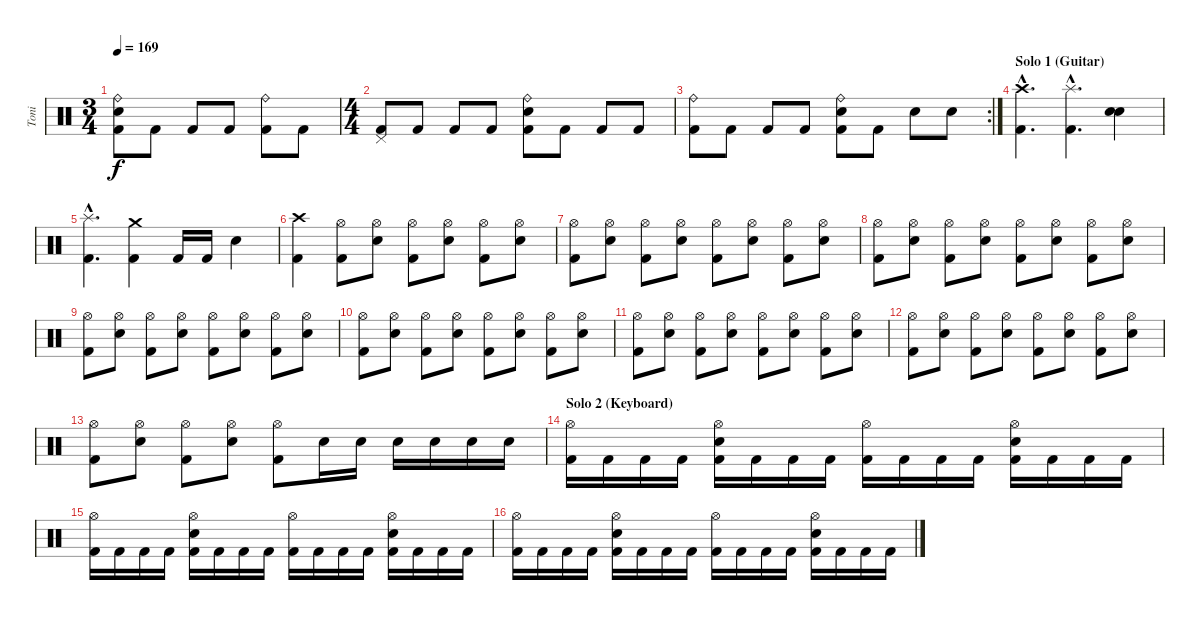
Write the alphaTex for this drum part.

\track ("Toni" "Toni") {instrument percussion}
\staff {score}
\articulation defaults
\ts (3 4)
\tempo 169
\clef neutral
\ks c
("Ride (bell)" "Electric Snare (hit)" "Kick (hit) 2").8{dy f} "Kick (hit) 2".8 "Kick (hit) 2".8 "Kick (hit) 2".8 ("Ride (bell)" "Kick (hit) 2").8 "Kick (hit) 2".8 |
\ts (4 4)
("Pedal Hi-Hat (hit)" "Kick (hit) 2").8 "Kick (hit) 2".8 "Kick (hit) 2".8 "Kick (hit) 2".8 ("Ride (bell)" "Electric Snare (hit)" "Kick (hit) 2").8 "Kick (hit) 2".8 "Kick (hit) 2".8 "Kick (hit) 2".8 |
\rc 2
("Ride (bell)" "Kick (hit) 2").8 "Kick (hit) 2".8 "Kick (hit) 2".8 "Kick (hit) 2".8 ("Ride (bell)" "Electric Snare (hit)" "Kick (hit) 2").8 "Kick (hit) 2".8 "Electric Snare (hit)".8 "Electric Snare (hit)".8 |
\section ("" "Solo 1 (Guitar)")
("Crash high (hit)"{hac} "Kick (hit) 2"{hac}).4{d} ("Splash (hit)"{hac} "Kick (hit) 2"{hac}).4{d} ("Electric Snare (hit)" "Electric Snare (hit)").4{bd 60} |
("Splash (hit)"{hac} "Kick (hit) 2"{hac}).4{d} ("Crash medium (hit)" "Kick (hit) 2").4 "Kick (hit) 2".16 "Kick (hit) 2".16 "Electric Snare (hit)".4 |
("Crash high (hit)" "Kick (hit) 2").4 ("Hi-Hat (open)" "Kick (hit) 2").8 ("Hi-Hat (open)" "Electric Snare (hit)").8 ("Hi-Hat (open)" "Kick (hit) 2").8 ("Hi-Hat (open)" "Electric Snare (hit)").8 ("Hi-Hat (open)" "Kick (hit) 2").8 ("Hi-Hat (open)" "Electric Snare (hit)").8 |
("Hi-Hat (open)" "Kick (hit) 2").8 ("Hi-Hat (open)" "Electric Snare (hit)").8 ("Hi-Hat (open)" "Kick (hit) 2").8 ("Hi-Hat (open)" "Electric Snare (hit)").8 ("Hi-Hat (open)" "Kick (hit) 2").8 ("Hi-Hat (open)" "Electric Snare (hit)").8 ("Hi-Hat (open)" "Kick (hit) 2").8 ("Hi-Hat (open)" "Electric Snare (hit)").8 |
("Hi-Hat (open)" "Kick (hit) 2").8 ("Hi-Hat (open)" "Electric Snare (hit)").8 ("Hi-Hat (open)" "Kick (hit) 2").8 ("Hi-Hat (open)" "Electric Snare (hit)").8 ("Hi-Hat (open)" "Kick (hit) 2").8 ("Hi-Hat (open)" "Electric Snare (hit)").8 ("Hi-Hat (open)" "Kick (hit) 2").8 ("Hi-Hat (open)" "Electric Snare (hit)").8 |
("Hi-Hat (open)" "Kick (hit) 2").8 ("Hi-Hat (open)" "Electric Snare (hit)").8 ("Hi-Hat (open)" "Kick (hit) 2").8 ("Hi-Hat (open)" "Electric Snare (hit)").8 ("Hi-Hat (open)" "Kick (hit) 2").8 ("Hi-Hat (open)" "Electric Snare (hit)").8 ("Hi-Hat (open)" "Kick (hit) 2").8 ("Hi-Hat (open)" "Electric Snare (hit)").8 |
("Hi-Hat (open)" "Kick (hit) 2").8 ("Hi-Hat (open)" "Electric Snare (hit)").8 ("Hi-Hat (open)" "Kick (hit) 2").8 ("Hi-Hat (open)" "Electric Snare (hit)").8 ("Hi-Hat (open)" "Kick (hit) 2").8 ("Hi-Hat (open)" "Electric Snare (hit)").8 ("Hi-Hat (open)" "Kick (hit) 2").8 ("Hi-Hat (open)" "Electric Snare (hit)").8 |
("Hi-Hat (open)" "Kick (hit) 2").8 ("Hi-Hat (open)" "Electric Snare (hit)").8 ("Hi-Hat (open)" "Kick (hit) 2").8 ("Hi-Hat (open)" "Electric Snare (hit)").8 ("Hi-Hat (open)" "Kick (hit) 2").8 ("Hi-Hat (open)" "Electric Snare (hit)").8 ("Hi-Hat (open)" "Kick (hit) 2").8 ("Hi-Hat (open)" "Electric Snare (hit)").8 |
("Hi-Hat (open)" "Kick (hit) 2").8 ("Hi-Hat (open)" "Electric Snare (hit)").8 ("Hi-Hat (open)" "Kick (hit) 2").8 ("Hi-Hat (open)" "Electric Snare (hit)").8 ("Hi-Hat (open)" "Kick (hit) 2").8 ("Hi-Hat (open)" "Electric Snare (hit)").8 ("Hi-Hat (open)" "Kick (hit) 2").8 ("Hi-Hat (open)" "Electric Snare (hit)").8 |
("Hi-Hat (open)" "Kick (hit) 2").8 ("Hi-Hat (open)" "Electric Snare (hit)").8 ("Hi-Hat (open)" "Kick (hit) 2").8 ("Hi-Hat (open)" "Electric Snare (hit)").8 ("Hi-Hat (open)" "Kick (hit) 2").8 "Electric Snare (hit)".16 "Electric Snare (hit)".16 "Electric Snare (hit)".16 "Electric Snare (hit)".16 "Electric Snare (hit)".16 "Electric Snare (hit)".16 |
\section ("" "Solo 2 (Keyboard)")
("Hi-Hat (open)" "Kick (hit) 2").16 "Kick (hit) 2".16 "Kick (hit) 2".16 "Kick (hit) 2".16 ("Hi-Hat (open)" "Electric Snare (hit)" "Kick (hit) 2").16 "Kick (hit) 2".16 "Kick (hit) 2".16 "Kick (hit) 2".16 ("Hi-Hat (open)" "Kick (hit) 2").16 "Kick (hit) 2".16 "Kick (hit) 2".16 "Kick (hit) 2".16 ("Hi-Hat (open)" "Electric Snare (hit)" "Kick (hit) 2").16 "Kick (hit) 2".16 "Kick (hit) 2".16 "Kick (hit) 2".16 |
("Hi-Hat (open)" "Kick (hit) 2").16 "Kick (hit) 2".16 "Kick (hit) 2".16 "Kick (hit) 2".16 ("Hi-Hat (open)" "Electric Snare (hit)" "Kick (hit) 2").16 "Kick (hit) 2".16 "Kick (hit) 2".16 "Kick (hit) 2".16 ("Hi-Hat (open)" "Kick (hit) 2").16 "Kick (hit) 2".16 "Kick (hit) 2".16 "Kick (hit) 2".16 ("Hi-Hat (open)" "Electric Snare (hit)" "Kick (hit) 2").16 "Kick (hit) 2".16 "Kick (hit) 2".16 "Kick (hit) 2".16 |
("Hi-Hat (open)" "Kick (hit) 2").16 "Kick (hit) 2".16 "Kick (hit) 2".16 "Kick (hit) 2".16 ("Hi-Hat (open)" "Electric Snare (hit)" "Kick (hit) 2").16 "Kick (hit) 2".16 "Kick (hit) 2".16 "Kick (hit) 2".16 ("Hi-Hat (open)" "Kick (hit) 2").16 "Kick (hit) 2".16 "Kick (hit) 2".16 "Kick (hit) 2".16 ("Hi-Hat (open)" "Electric Snare (hit)" "Kick (hit) 2").16 "Kick (hit) 2".16 "Kick (hit) 2".16 "Kick (hit) 2".16
